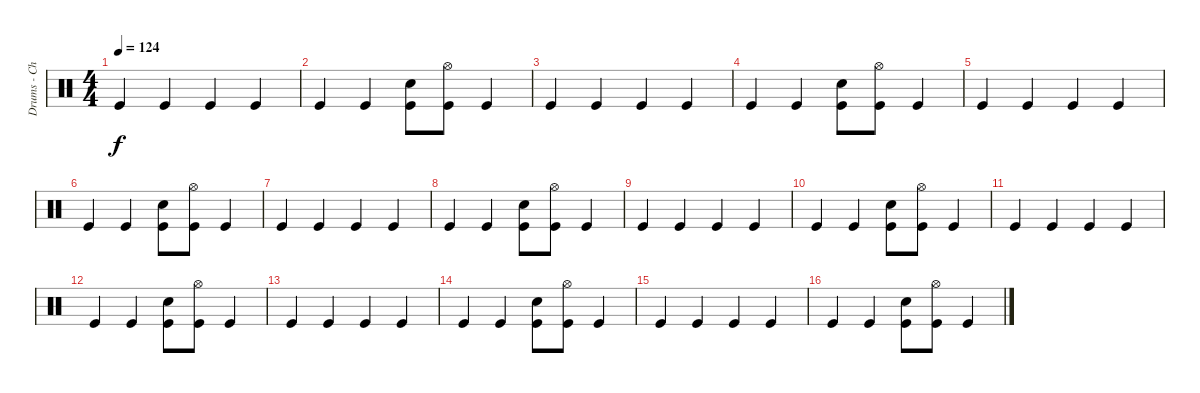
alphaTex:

\track ("Drums - Chris Frantz" "Drums - Ch") {instrument percussion}
\staff {score}
\articulation defaults
\ts (4 4)
\tempo 124
\clef neutral
\ks c "Kick (hit)".4{dy f} "Kick (hit)".4 "Kick (hit)".4 "Kick (hit)".4
|
"Kick (hit)".4 "Kick (hit)".4 ("Kick (hit)" "Snare (hit) 2").8 ("Kick (hit)" "Hi-Hat (open)").8 "Kick (hit)".4 |
"Kick (hit)".4 "Kick (hit)".4 "Kick (hit)".4 "Kick (hit)".4 |
"Kick (hit)".4 "Kick (hit)".4 ("Kick (hit)" "Snare (hit) 2").8 ("Kick (hit)" "Hi-Hat (open)").8 "Kick (hit)".4 |
"Kick (hit)".4 "Kick (hit)".4 "Kick (hit)".4 "Kick (hit)".4 |
"Kick (hit)".4 "Kick (hit)".4 ("Kick (hit)" "Snare (hit) 2").8 ("Kick (hit)" "Hi-Hat (open)").8 "Kick (hit)".4 |
"Kick (hit)".4 "Kick (hit)".4 "Kick (hit)".4 "Kick (hit)".4 |
"Kick (hit)".4 "Kick (hit)".4 ("Kick (hit)" "Snare (hit) 2").8 ("Kick (hit)" "Hi-Hat (open)").8 "Kick (hit)".4 |
"Kick (hit)".4 "Kick (hit)".4 "Kick (hit)".4 "Kick (hit)".4 |
"Kick (hit)".4 "Kick (hit)".4 ("Kick (hit)" "Snare (hit) 2").8 ("Kick (hit)" "Hi-Hat (open)").8 "Kick (hit)".4 |
"Kick (hit)".4 "Kick (hit)".4 "Kick (hit)".4 "Kick (hit)".4 |
"Kick (hit)".4 "Kick (hit)".4 ("Kick (hit)" "Snare (hit) 2").8 ("Kick (hit)" "Hi-Hat (open)").8 "Kick (hit)".4 |
"Kick (hit)".4 "Kick (hit)".4 "Kick (hit)".4 "Kick (hit)".4 |
"Kick (hit)".4 "Kick (hit)".4 ("Kick (hit)" "Snare (hit) 2").8 ("Kick (hit)" "Hi-Hat (open)").8 "Kick (hit)".4 |
"Kick (hit)".4 "Kick (hit)".4 "Kick (hit)".4 "Kick (hit)".4 |
"Kick (hit)".4 "Kick (hit)".4 ("Kick (hit)" "Snare (hit) 2").8 ("Kick (hit)" "Hi-Hat (open)").8 "Kick (hit)".4
